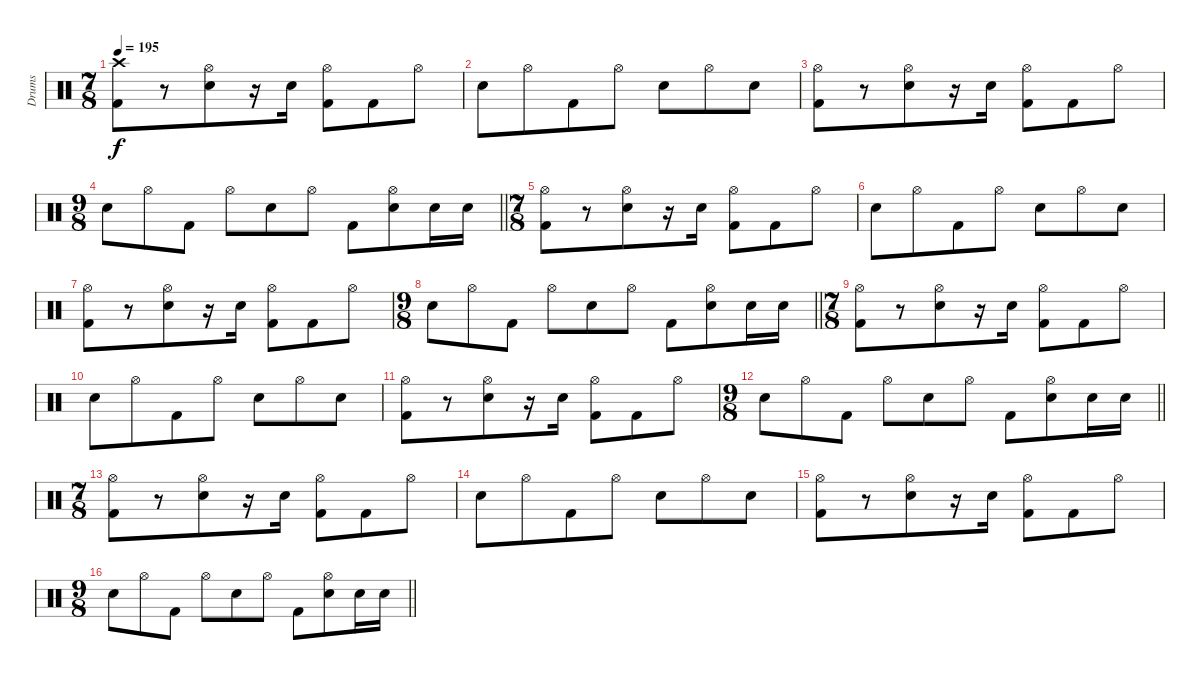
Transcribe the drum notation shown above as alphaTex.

\track ("Drums" "Drums") {instrument percussion}
\staff {score}
\articulation defaults
\ts (7 8)
\tempo 195
\clef neutral
\ks c
("Crash high (hit)" "Kick (hit) 2").8{dy f} r.8 ("Hi-Hat (open)" "Electric Snare (hit)").8 r.16 "Electric Snare (hit)".16 ("Hi-Hat (open)" "Kick (hit) 2").8 "Kick (hit) 2".8 "Hi-Hat (open)".8 |
"Electric Snare (hit)".8 "Hi-Hat (open)".8 "Kick (hit) 2".8 "Hi-Hat (open)".8 "Electric Snare (hit)".8 "Hi-Hat (open)".8 "Electric Snare (hit)".8 |
("Hi-Hat (open)" "Kick (hit) 2").8 r.8 ("Hi-Hat (open)" "Electric Snare (hit)").8 r.16 "Electric Snare (hit)".16 ("Hi-Hat (open)" "Kick (hit) 2").8 "Kick (hit) 2".8 "Hi-Hat (open)".8 |
\ts (9 8)
\barLineRight lightlight "Electric Snare (hit)".8 "Hi-Hat (open)".8 "Kick (hit) 2".8 "Hi-Hat (open)".8 "Electric Snare (hit)".8 "Hi-Hat (open)".8 "Kick (hit) 2".8
("Hi-Hat (open)" "Electric Snare (hit)").8 "Electric Snare (hit)".16 "Electric Snare (hit)".16 |
\ts (7 8)
("Hi-Hat (open)" "Kick (hit) 2").8 r.8 ("Hi-Hat (open)" "Electric Snare (hit)").8 r.16 "Electric Snare (hit)".16 ("Hi-Hat (open)" "Kick (hit) 2").8 "Kick (hit) 2".8 "Hi-Hat (open)".8 |
"Electric Snare (hit)".8 "Hi-Hat (open)".8 "Kick (hit) 2".8 "Hi-Hat (open)".8 "Electric Snare (hit)".8 "Hi-Hat (open)".8 "Electric Snare (hit)".8 |
("Hi-Hat (open)" "Kick (hit) 2").8 r.8 ("Hi-Hat (open)" "Electric Snare (hit)").8 r.16 "Electric Snare (hit)".16 ("Hi-Hat (open)" "Kick (hit) 2").8 "Kick (hit) 2".8 "Hi-Hat (open)".8 |
\ts (9 8)
\barLineRight lightlight "Electric Snare (hit)".8 "Hi-Hat (open)".8 "Kick (hit) 2".8 "Hi-Hat (open)".8 "Electric Snare (hit)".8 "Hi-Hat (open)".8 "Kick (hit) 2".8
("Hi-Hat (open)" "Electric Snare (hit)").8 "Electric Snare (hit)".16 "Electric Snare (hit)".16 |
\ts (7 8)
("Hi-Hat (open)" "Kick (hit) 2").8 r.8 ("Hi-Hat (open)" "Electric Snare (hit)").8 r.16 "Electric Snare (hit)".16 ("Hi-Hat (open)" "Kick (hit) 2").8 "Kick (hit) 2".8 "Hi-Hat (open)".8 |
"Electric Snare (hit)".8 "Hi-Hat (open)".8 "Kick (hit) 2".8 "Hi-Hat (open)".8 "Electric Snare (hit)".8 "Hi-Hat (open)".8 "Electric Snare (hit)".8 |
("Hi-Hat (open)" "Kick (hit) 2").8 r.8 ("Hi-Hat (open)" "Electric Snare (hit)").8 r.16 "Electric Snare (hit)".16 ("Hi-Hat (open)" "Kick (hit) 2").8 "Kick (hit) 2".8 "Hi-Hat (open)".8 |
\ts (9 8)
\barLineRight lightlight "Electric Snare (hit)".8 "Hi-Hat (open)".8 "Kick (hit) 2".8 "Hi-Hat (open)".8 "Electric Snare (hit)".8 "Hi-Hat (open)".8 "Kick (hit) 2".8
("Hi-Hat (open)" "Electric Snare (hit)").8 "Electric Snare (hit)".16 "Electric Snare (hit)".16 |
\ts (7 8)
("Hi-Hat (open)" "Kick (hit) 2").8 r.8 ("Hi-Hat (open)" "Electric Snare (hit)").8 r.16 "Electric Snare (hit)".16 ("Hi-Hat (open)" "Kick (hit) 2").8 "Kick (hit) 2".8 "Hi-Hat (open)".8 |
"Electric Snare (hit)".8 "Hi-Hat (open)".8 "Kick (hit) 2".8 "Hi-Hat (open)".8 "Electric Snare (hit)".8 "Hi-Hat (open)".8 "Electric Snare (hit)".8 |
("Hi-Hat (open)" "Kick (hit) 2").8 r.8 ("Hi-Hat (open)" "Electric Snare (hit)").8 r.16 "Electric Snare (hit)".16 ("Hi-Hat (open)" "Kick (hit) 2").8 "Kick (hit) 2".8 "Hi-Hat (open)".8 |
\ts (9 8)
\barLineRight lightlight "Electric Snare (hit)".8 "Hi-Hat (open)".8 "Kick (hit) 2".8 "Hi-Hat (open)".8 "Electric Snare (hit)".8 "Hi-Hat (open)".8 "Kick (hit) 2".8
("Hi-Hat (open)" "Electric Snare (hit)").8 "Electric Snare (hit)".16 "Electric Snare (hit)".16
